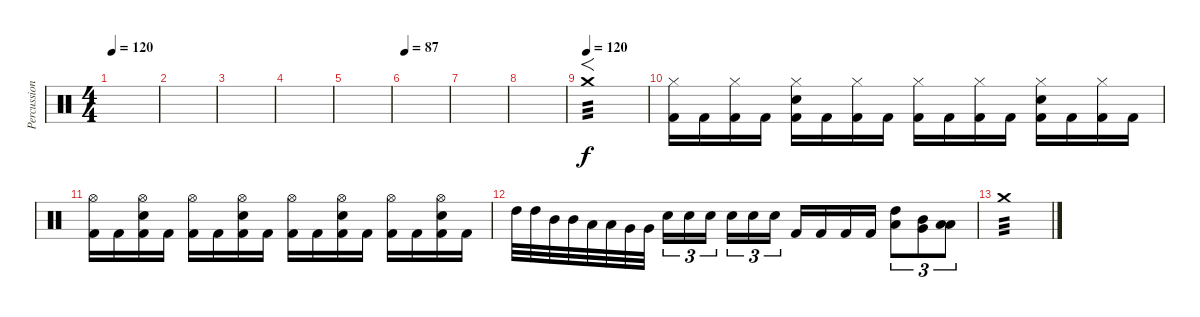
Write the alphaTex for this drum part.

\track ("Percussion" "Percussion") {instrument percussion}
\staff {score}
\articulation defaults
\ts (4 4)
\tempo 120
\clef neutral
\ks c
|
|
|
|
|
\tempo 87
|
|
|
\tempo (120)
"Crash medium (hit)".1{f tp 3} |
("Hi-Hat (closed)" "Kick (hit) 2").16 "Kick (hit) 2".16 ("Hi-Hat (closed)" "Kick (hit) 2").16 "Kick (hit) 2".16 ("Hi-Hat (closed)" "Electric Snare (hit)" "Kick (hit) 2").16 "Kick (hit) 2".16 ("Hi-Hat (closed)" "Kick (hit) 2").16 "Kick (hit) 2".16 ("Hi-Hat (closed)" "Kick (hit) 2").16 "Kick (hit) 2".16 ("Hi-Hat (closed)" "Kick (hit) 2").16 "Kick (hit) 2".16 ("Hi-Hat (closed)" "Electric Snare (hit)" "Kick (hit) 2").16 "Kick (hit) 2".16 ("Hi-Hat (closed)" "Kick (hit) 2").16 "Kick (hit) 2".16 |
("Hi-Hat (open)" "Kick (hit) 2").16 "Kick (hit) 2".16 ("Hi-Hat (open)" "Electric Snare (hit)" "Kick (hit) 2").16 "Kick (hit) 2".16 ("Hi-Hat (open)" "Kick (hit) 2").16 "Kick (hit) 2".16 ("Hi-Hat (open)" "Electric Snare (hit)" "Kick (hit) 2").16 "Kick (hit) 2".16 ("Hi-Hat (open)" "Kick (hit) 2").16 "Kick (hit) 2".16 ("Hi-Hat (open)" "Electric Snare (hit)" "Kick (hit) 2").16 "Kick (hit) 2".16 ("Hi-Hat (open)" "Kick (hit) 2").16 "Kick (hit) 2".16 ("Hi-Hat (open)" "Electric Snare (hit)" "Kick (hit) 2").16 "Kick (hit) 2".16 |
"High Tom (hit)".32 "High Tom (hit)".32 "Mid Tom (hit)".32 "Mid Tom (hit)".32 "Low Tom (hit)".32 "Low Tom (hit)".32 "Very Low Tom (hit)".32 "Very Low Tom (hit)".32 "Electric Snare (hit)".16{tu (3 2)} "Electric Snare (hit)".16{tu (3 2)} "Electric Snare (hit)".16{tu (3 2)} "Electric Snare (hit)".16{tu (3 2)} "Electric Snare (hit)".16{tu (3 2)} "Electric Snare (hit)".16{tu (3 2)} "Kick (hit) 2".16 "Kick (hit) 2".16 "Kick (hit) 2".16 "Kick (hit) 2".16 ("High Tom (hit)" "Low Tom (hit)").8{tu (3 2)} ("Mid Tom (hit)" "Very Low Tom (hit)").8{tu (3 2)} ("Low Tom (hit)" "Low Floor Tom (hit)").8{tu (3 2)} |
"Crash medium (hit)".1{tp 3 volume 0}
